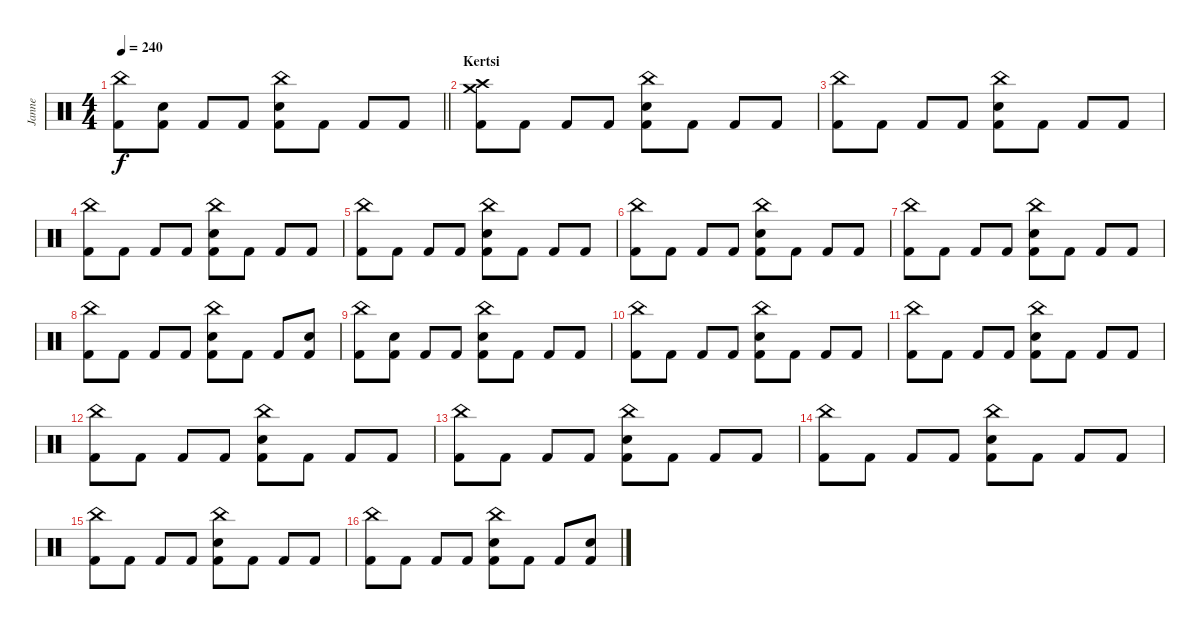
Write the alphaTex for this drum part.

\track ("Janne" "Janne") {instrument percussion}
\staff {score}
\articulation defaults
\ts (4 4)
\tempo 240
\clef neutral
\barLineRight lightlight
\ks c
("China (hit)" "Kick (hit) 2").8{dy f} ("Electric Snare (hit)" "Kick (hit) 2").8 "Kick (hit) 2".8 "Kick (hit) 2".8 ("China (hit)" "Electric Snare (hit)" "Kick (hit) 2").8 "Kick (hit) 2".8 "Kick (hit) 2".8 "Kick (hit) 2".8 |
\section ("" "Kertsi")
("Crash high (hit)" "Crash medium (hit)" "Kick (hit) 2").8 "Kick (hit) 2".8 "Kick (hit) 2".8 "Kick (hit) 2".8 ("China (hit)" "Electric Snare (hit)" "Kick (hit) 2").8 "Kick (hit) 2".8 "Kick (hit) 2".8 "Kick (hit) 2".8 |
("China (hit)" "Kick (hit) 2").8 "Kick (hit) 2".8 "Kick (hit) 2".8 "Kick (hit) 2".8 ("China (hit)" "Electric Snare (hit)" "Kick (hit) 2").8 "Kick (hit) 2".8 "Kick (hit) 2".8 "Kick (hit) 2".8 |
("China (hit)" "Kick (hit) 2").8 "Kick (hit) 2".8 "Kick (hit) 2".8 "Kick (hit) 2".8 ("China (hit)" "Electric Snare (hit)" "Kick (hit) 2").8 "Kick (hit) 2".8 "Kick (hit) 2".8 "Kick (hit) 2".8 |
("China (hit)" "Kick (hit) 2").8 "Kick (hit) 2".8 "Kick (hit) 2".8 "Kick (hit) 2".8 ("China (hit)" "Electric Snare (hit)" "Kick (hit) 2").8 "Kick (hit) 2".8 "Kick (hit) 2".8 "Kick (hit) 2".8 |
("China (hit)" "Kick (hit) 2").8 "Kick (hit) 2".8 "Kick (hit) 2".8 "Kick (hit) 2".8 ("China (hit)" "Electric Snare (hit)" "Kick (hit) 2").8 "Kick (hit) 2".8 "Kick (hit) 2".8 "Kick (hit) 2".8 |
("China (hit)" "Kick (hit) 2").8 "Kick (hit) 2".8 "Kick (hit) 2".8 "Kick (hit) 2".8 ("China (hit)" "Electric Snare (hit)" "Kick (hit) 2").8 "Kick (hit) 2".8 "Kick (hit) 2".8 "Kick (hit) 2".8 |
("China (hit)" "Kick (hit) 2").8 "Kick (hit) 2".8 "Kick (hit) 2".8 "Kick (hit) 2".8 ("China (hit)" "Electric Snare (hit)" "Kick (hit) 2").8 "Kick (hit) 2".8 "Kick (hit) 2".8 ("Electric Snare (hit)" "Kick (hit) 2").8 |
("China (hit)" "Kick (hit) 2").8 ("Electric Snare (hit)" "Kick (hit) 2").8 "Kick (hit) 2".8 "Kick (hit) 2".8 ("China (hit)" "Electric Snare (hit)" "Kick (hit) 2").8 "Kick (hit) 2".8 "Kick (hit) 2".8 "Kick (hit) 2".8 |
("China (hit)" "Kick (hit) 2").8 "Kick (hit) 2".8 "Kick (hit) 2".8 "Kick (hit) 2".8 ("China (hit)" "Electric Snare (hit)" "Kick (hit) 2").8 "Kick (hit) 2".8 "Kick (hit) 2".8 "Kick (hit) 2".8 |
("China (hit)" "Kick (hit) 2").8 "Kick (hit) 2".8 "Kick (hit) 2".8 "Kick (hit) 2".8 ("China (hit)" "Electric Snare (hit)" "Kick (hit) 2").8 "Kick (hit) 2".8 "Kick (hit) 2".8 "Kick (hit) 2".8 |
("China (hit)" "Kick (hit) 2").8 "Kick (hit) 2".8 "Kick (hit) 2".8 "Kick (hit) 2".8 ("China (hit)" "Electric Snare (hit)" "Kick (hit) 2").8 "Kick (hit) 2".8 "Kick (hit) 2".8 "Kick (hit) 2".8 |
("China (hit)" "Kick (hit) 2").8 "Kick (hit) 2".8 "Kick (hit) 2".8 "Kick (hit) 2".8 ("China (hit)" "Electric Snare (hit)" "Kick (hit) 2").8 "Kick (hit) 2".8 "Kick (hit) 2".8 "Kick (hit) 2".8 |
("China (hit)" "Kick (hit) 2").8 "Kick (hit) 2".8 "Kick (hit) 2".8 "Kick (hit) 2".8 ("China (hit)" "Electric Snare (hit)" "Kick (hit) 2").8 "Kick (hit) 2".8 "Kick (hit) 2".8 "Kick (hit) 2".8 |
("China (hit)" "Kick (hit) 2").8 "Kick (hit) 2".8 "Kick (hit) 2".8 "Kick (hit) 2".8 ("China (hit)" "Electric Snare (hit)" "Kick (hit) 2").8 "Kick (hit) 2".8 "Kick (hit) 2".8 "Kick (hit) 2".8 |
("China (hit)" "Kick (hit) 2").8 "Kick (hit) 2".8 "Kick (hit) 2".8 "Kick (hit) 2".8 ("China (hit)" "Electric Snare (hit)" "Kick (hit) 2").8 "Kick (hit) 2".8 "Kick (hit) 2".8 ("Electric Snare (hit)" "Kick (hit) 2").8
